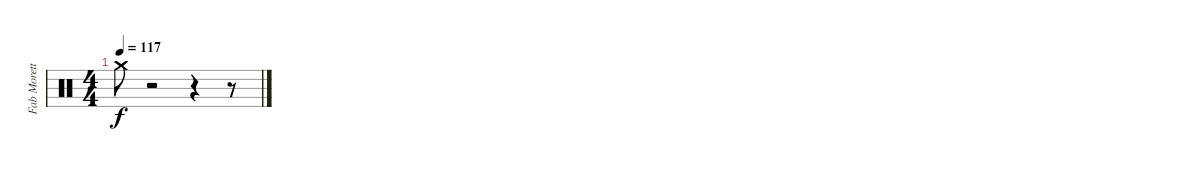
\track ("Fab Moretti" "Fab Morett") {instrument percussion}
\staff {score}
\articulation defaults
\ts (4 4)
\tempo 117
\clef neutral
\ks c "Crash medium (hit)".8{dy f}
r.2 r.4 r.8
